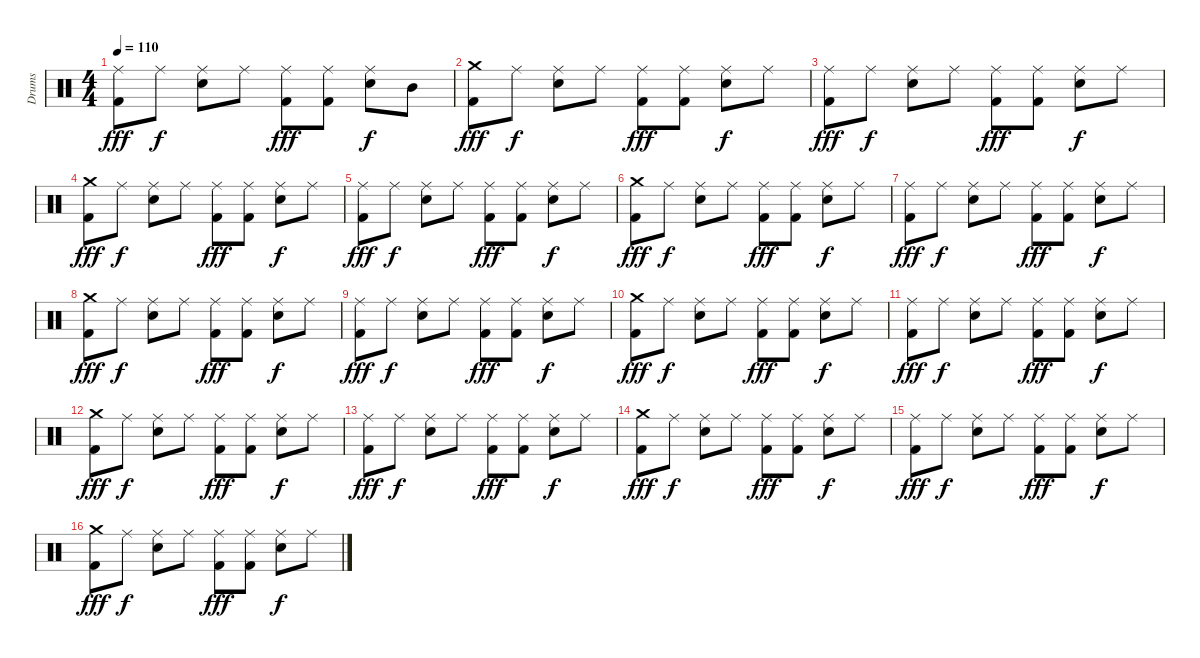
\track ("Drums" "Drums") {instrument percussion}
\staff {score}
\articulation defaults
\ts (4 4)
\tempo 110
\clef neutral
\ks c
("Ride (middle)" "Kick (hit) 2").8{dy fff} "Ride (middle)".8{dy f} ("Ride (middle)" "Snare (hit) 2").8 "Ride (middle)".8 ("Ride (middle)" "Kick (hit) 2").8{dy fff} ("Ride (middle)" "Kick (hit) 2").8 ("Ride (middle)" "Snare (hit) 2").8{dy f} "Mid Tom (hit)".8 |
("Crash medium (hit)" "Kick (hit) 2").8{dy fff} "Ride (middle)".8{dy f} ("Ride (middle)" "Snare (hit) 2").8 "Ride (middle)".8 ("Ride (middle)" "Kick (hit) 2").8{dy fff} ("Ride (middle)" "Kick (hit) 2").8 ("Ride (middle)" "Snare (hit) 2").8{dy f} "Ride (middle)".8 |
("Ride (middle)" "Kick (hit) 2").8{dy fff} "Ride (middle)".8{dy f} ("Ride (middle)" "Snare (hit) 2").8 "Ride (middle)".8 ("Ride (middle)" "Kick (hit) 2").8{dy fff} ("Ride (middle)" "Kick (hit) 2").8 ("Ride (middle)" "Snare (hit) 2").8{dy f} "Ride (middle)".8 |
("Crash medium (hit)" "Kick (hit) 2").8{dy fff} "Ride (middle)".8{dy f} ("Ride (middle)" "Snare (hit) 2").8 "Ride (middle)".8 ("Ride (middle)" "Kick (hit) 2").8{dy fff} ("Ride (middle)" "Kick (hit) 2").8 ("Ride (middle)" "Snare (hit) 2").8{dy f} "Ride (middle)".8 |
("Ride (middle)" "Kick (hit) 2").8{dy fff} "Ride (middle)".8{dy f} ("Ride (middle)" "Snare (hit) 2").8 "Ride (middle)".8 ("Ride (middle)" "Kick (hit) 2").8{dy fff} ("Ride (middle)" "Kick (hit) 2").8 ("Ride (middle)" "Snare (hit) 2").8{dy f} "Ride (middle)".8 |
("Crash medium (hit)" "Kick (hit) 2").8{dy fff} "Ride (middle)".8{dy f} ("Ride (middle)" "Snare (hit) 2").8 "Ride (middle)".8 ("Ride (middle)" "Kick (hit) 2").8{dy fff} ("Ride (middle)" "Kick (hit) 2").8 ("Ride (middle)" "Snare (hit) 2").8{dy f} "Ride (middle)".8 |
("Ride (middle)" "Kick (hit) 2").8{dy fff} "Ride (middle)".8{dy f} ("Ride (middle)" "Snare (hit) 2").8 "Ride (middle)".8 ("Ride (middle)" "Kick (hit) 2").8{dy fff} ("Ride (middle)" "Kick (hit) 2").8 ("Ride (middle)" "Snare (hit) 2").8{dy f} "Ride (middle)".8 |
("Crash medium (hit)" "Kick (hit) 2").8{dy fff} "Ride (middle)".8{dy f} ("Ride (middle)" "Snare (hit) 2").8 "Ride (middle)".8 ("Ride (middle)" "Kick (hit) 2").8{dy fff} ("Ride (middle)" "Kick (hit) 2").8 ("Ride (middle)" "Snare (hit) 2").8{dy f} "Ride (middle)".8 |
("Ride (middle)" "Kick (hit) 2").8{dy fff} "Ride (middle)".8{dy f} ("Ride (middle)" "Snare (hit) 2").8 "Ride (middle)".8 ("Ride (middle)" "Kick (hit) 2").8{dy fff} ("Ride (middle)" "Kick (hit) 2").8 ("Ride (middle)" "Snare (hit) 2").8{dy f} "Ride (middle)".8 |
("Crash medium (hit)" "Kick (hit) 2").8{dy fff} "Ride (middle)".8{dy f} ("Ride (middle)" "Snare (hit) 2").8 "Ride (middle)".8 ("Ride (middle)" "Kick (hit) 2").8{dy fff} ("Ride (middle)" "Kick (hit) 2").8 ("Ride (middle)" "Snare (hit) 2").8{dy f} "Ride (middle)".8 |
("Ride (middle)" "Kick (hit) 2").8{dy fff} "Ride (middle)".8{dy f} ("Ride (middle)" "Snare (hit) 2").8 "Ride (middle)".8 ("Ride (middle)" "Kick (hit) 2").8{dy fff} ("Ride (middle)" "Kick (hit) 2").8 ("Ride (middle)" "Snare (hit) 2").8{dy f} "Ride (middle)".8 |
("Crash medium (hit)" "Kick (hit) 2").8{dy fff} "Ride (middle)".8{dy f} ("Ride (middle)" "Snare (hit) 2").8 "Ride (middle)".8 ("Ride (middle)" "Kick (hit) 2").8{dy fff} ("Ride (middle)" "Kick (hit) 2").8 ("Ride (middle)" "Snare (hit) 2").8{dy f} "Ride (middle)".8 |
("Ride (middle)" "Kick (hit) 2").8{dy fff} "Ride (middle)".8{dy f} ("Ride (middle)" "Snare (hit) 2").8 "Ride (middle)".8 ("Ride (middle)" "Kick (hit) 2").8{dy fff} ("Ride (middle)" "Kick (hit) 2").8 ("Ride (middle)" "Snare (hit) 2").8{dy f} "Ride (middle)".8 |
("Crash medium (hit)" "Kick (hit) 2").8{dy fff} "Ride (middle)".8{dy f} ("Ride (middle)" "Snare (hit) 2").8 "Ride (middle)".8 ("Ride (middle)" "Kick (hit) 2").8{dy fff} ("Ride (middle)" "Kick (hit) 2").8 ("Ride (middle)" "Snare (hit) 2").8{dy f} "Ride (middle)".8 |
("Ride (middle)" "Kick (hit) 2").8{dy fff} "Ride (middle)".8{dy f} ("Ride (middle)" "Snare (hit) 2").8 "Ride (middle)".8 ("Ride (middle)" "Kick (hit) 2").8{dy fff} ("Ride (middle)" "Kick (hit) 2").8 ("Ride (middle)" "Snare (hit) 2").8{dy f} "Ride (middle)".8 |
("Crash medium (hit)" "Kick (hit) 2").8{dy fff} "Ride (middle)".8{dy f} ("Ride (middle)" "Snare (hit) 2").8 "Ride (middle)".8 ("Ride (middle)" "Kick (hit) 2").8{dy fff} ("Ride (middle)" "Kick (hit) 2").8 ("Ride (middle)" "Snare (hit) 2").8{dy f} "Ride (middle)".8
